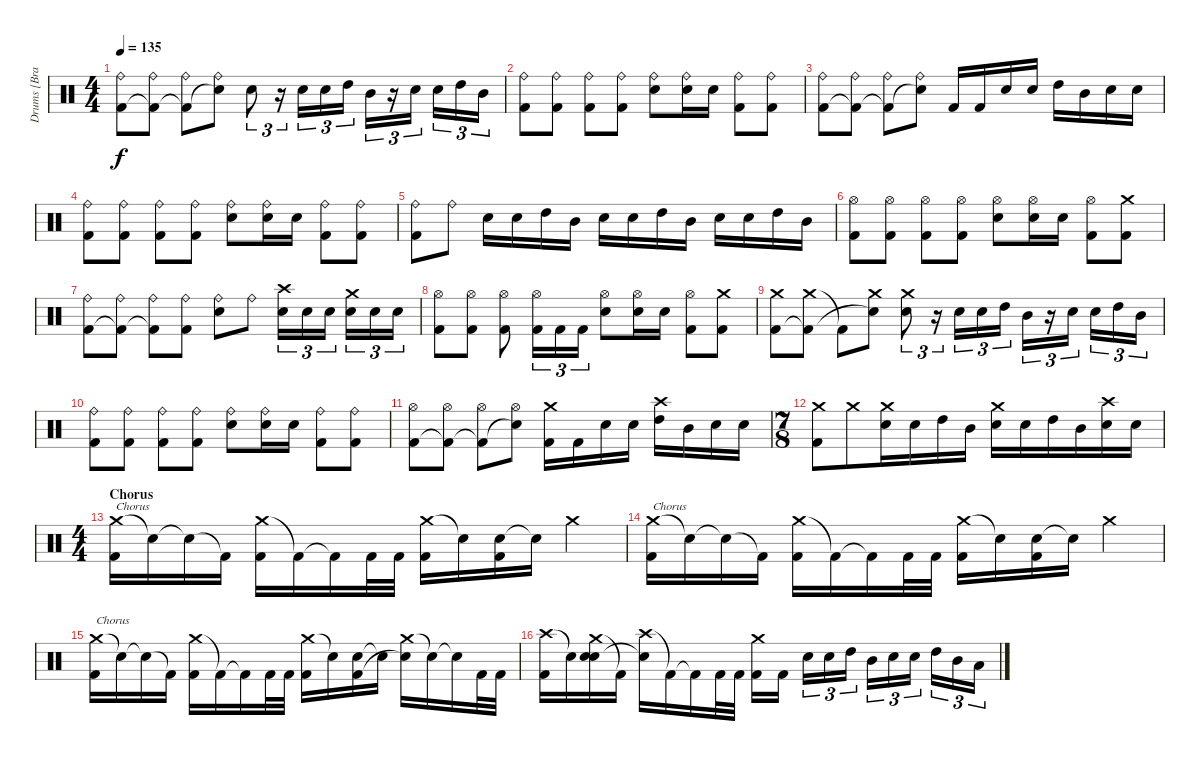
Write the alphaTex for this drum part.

\track ("Drums [Bran Dailor]" "Drums [Bra") {instrument percussion}
\staff {score}
\articulation defaults
\ts (4 4)
\tempo 135
\clef neutral
\ks c
("Ride (bell)" "Kick (hit) 2").8{dy f} ("Ride (bell)" "Kick (hit) 2"{t}).8 ("Ride (bell)" "Kick (hit) 2"{t}).8 ("Ride (bell)" "Snare (hit)"{t}).8 "Electric Snare (hit)".8{tu (3 2)} r.16{tu (3 2)} "Electric Snare (hit)".16{tu (3 2)} "Electric Snare (hit)".16{tu (3 2)} "High Tom (hit)".16{tu (3 2)} "Mid Tom (hit)".16{tu (3 2)} r.16{tu (3 2)} "Electric Snare (hit)".16{tu (3 2)} "Electric Snare (hit)".16{tu (3 2)} "High Tom (hit)".16{tu (3 2)} "Mid Tom (hit)".16{tu (3 2)} |
("Ride (bell)" "Kick (hit) 2").8 ("Ride (bell)" "Kick (hit) 2").8 ("Ride (bell)" "Kick (hit) 2").8 ("Ride (bell)" "Kick (hit) 2").8 ("Ride (bell)" "Electric Snare (hit)").8 ("Ride (bell)" "Electric Snare (hit)").16 "Electric Snare (hit)".16 ("Ride (bell)" "Kick (hit) 2").8 ("Ride (bell)" "Kick (hit) 2").8 |
("Ride (bell)" "Kick (hit) 2").8 ("Ride (bell)" "Kick (hit) 2"{t}).8 ("Ride (bell)" "Kick (hit) 2"{t}).8 ("Ride (bell)" "Snare (hit)"{t}).8 "Kick (hit) 2".16 "Kick (hit) 2".16 "Electric Snare (hit)".16 "Electric Snare (hit)".16 "High Tom (hit)".16 "Mid Tom (hit)".16 "Electric Snare (hit)".16 "Electric Snare (hit)".16 |
("Ride (bell)" "Kick (hit) 2").8 ("Ride (bell)" "Kick (hit) 2").8 ("Ride (bell)" "Kick (hit) 2").8 ("Ride (bell)" "Kick (hit) 2").8 ("Ride (bell)" "Electric Snare (hit)").8 ("Ride (bell)" "Electric Snare (hit)").16 "Electric Snare (hit)".16 ("Ride (bell)" "Kick (hit) 2").8 ("Ride (bell)" "Kick (hit) 2").8 |
("Ride (bell)" "Kick (hit) 2").8 "Ride (bell)".8 "Electric Snare (hit)".16 "Electric Snare (hit)".16 "High Tom (hit)".16 "Mid Tom (hit)".16 "Electric Snare (hit)".16 "Electric Snare (hit)".16 "High Tom (hit)".16 "Mid Tom (hit)".16 "Electric Snare (hit)".16 "Electric Snare (hit)".16 "High Tom (hit)".16 "Mid Tom (hit)".16 |
("Hi-Hat (open)" "Kick (hit) 2").8 ("Hi-Hat (open)" "Kick (hit) 2").8 ("Hi-Hat (open)" "Kick (hit) 2").8 ("Hi-Hat (open)" "Kick (hit) 2").8 ("Hi-Hat (open)" "Electric Snare (hit)").8 ("Hi-Hat (open)" "Electric Snare (hit)").16 "Electric Snare (hit)".16 ("Hi-Hat (open)" "Kick (hit) 2").8 ("Crash medium (hit)" "Kick (hit) 2").8 |
("Ride (bell)" "Kick (hit) 2").8 ("Ride (bell)" "Kick (hit) 2"{t}).8 ("Ride (bell)" "Kick (hit) 2"{t}).8 ("Ride (bell)" "Kick (hit) 2").8 ("Ride (bell)" "Electric Snare (hit)").8 "Ride (bell)".8 ("Crash high (hit)" "Electric Snare (hit)").16{tu (3 2)} "Electric Snare (hit)".16{tu (3 2)} "Electric Snare (hit)".16{tu (3 2)} ("Crash medium (hit)" "Electric Snare (hit)").16{tu (3 2)} "Electric Snare (hit)".16{tu (3 2)} "Electric Snare (hit)".16{tu (3 2)} |
("Hi-Hat (open)" "Kick (hit) 2").8 ("Hi-Hat (open)" "Kick (hit) 2").8 ("Hi-Hat (open)" "Kick (hit) 2").8 ("Hi-Hat (open)" "Kick (hit) 2").16{tu (3 2)} "Kick (hit) 2".16{tu (3 2)} "Kick (hit) 2".16{tu (3 2)} ("Hi-Hat (open)" "Electric Snare (hit)").8 ("Hi-Hat (open)" "Electric Snare (hit)").16 "Electric Snare (hit)".16 ("Hi-Hat (open)" "Kick (hit) 2").8 ("Crash medium (hit)" "Kick (hit) 2").8 |
("Crash medium (hit)" "Kick (hit) 2").8 ("Crash medium (hit)" "Kick (hit) 2"{t}).8 "Kick (hit) 2"{t}.8 ("Crash medium (hit)" "Snare (hit)"{t}).8 ("Crash medium (hit)" "Electric Snare (hit)").8{tu (3 2)} r.16{tu (3 2)} "Electric Snare (hit)".16{tu (3 2)} "Electric Snare (hit)".16{tu (3 2)} "High Tom (hit)".16{tu (3 2)} "Mid Tom (hit)".16{tu (3 2)} r.16{tu (3 2)} "Electric Snare (hit)".16{tu (3 2)} "Electric Snare (hit)".16{tu (3 2)} "High Tom (hit)".16{tu (3 2)} "Mid Tom (hit)".16{tu (3 2)} |
("Ride (bell)" "Kick (hit) 2").8 ("Ride (bell)" "Kick (hit) 2").8 ("Ride (bell)" "Kick (hit) 2").8 ("Ride (bell)" "Kick (hit) 2").8 ("Ride (bell)" "Electric Snare (hit)").8 ("Ride (bell)" "Electric Snare (hit)").16 "Electric Snare (hit)".16 ("Ride (bell)" "Kick (hit) 2").8 ("Ride (bell)" "Kick (hit) 2").8 |
("Hi-Hat (open)" "Kick (hit) 2").8 ("Hi-Hat (open)" "Kick (hit) 2"{t}).8 ("Hi-Hat (open)" "Kick (hit) 2"{t}).8 ("Hi-Hat (open)" "Snare (hit)"{t}).8 ("Crash medium (hit)" "Kick (hit) 2").16 "Kick (hit) 2".16 "Electric Snare (hit)".16 "Electric Snare (hit)".16 ("Crash high (hit)" "High Tom (hit)").16 "Mid Tom (hit)".16 "Electric Snare (hit)".16 "Electric Snare (hit)".16 |
\ts (7 8)
("Crash medium (hit)" "Kick (hit) 2").8 "Crash medium (hit)".8 ("Crash medium (hit)" "Electric Snare (hit)").16 "Electric Snare (hit)".16 "High Tom (hit)".16 "Mid Tom (hit)".16 ("Crash medium (hit)" "Electric Snare (hit)").16 "Electric Snare (hit)".16 "High Tom (hit)".16 "Mid Tom (hit)".16 ("Crash high (hit)" "Electric Snare (hit)").16 "Electric Snare (hit)".16 |
\ts (4 4)
\section ("" "Chorus")
("Crash medium (hit)" "Kick (hit) 2").16{txt "Chorus"} "Snare (hit)"{t}.16 "Snare (hit)"{t}.16 "Kick (hit) 2"{t}.16 ("Crash medium (hit)" "Kick (hit) 2").16 "Kick (hit) 2"{t}.16 "Kick (hit) 2"{t}.16 "Kick (hit) 2".32 "Kick (hit) 2".32 ("Crash medium (hit)" "Kick (hit) 2").16 "Snare (hit)"{t}.16 ("Electric Snare (hit)" "Kick (hit) 2").16 "Snare (hit)"{t}.16 "Crash medium (hit)".4 |
("Crash medium (hit)" "Kick (hit) 2").16{txt "Chorus"} "Snare (hit)"{t}.16 "Snare (hit)"{t}.16 "Kick (hit) 2"{t}.16 ("Crash medium (hit)" "Kick (hit) 2").16 "Kick (hit) 2"{t}.16 "Kick (hit) 2"{t}.16 "Kick (hit) 2".32 "Kick (hit) 2".32 ("Crash medium (hit)" "Kick (hit) 2").16 "Snare (hit)"{t}.16 ("Electric Snare (hit)" "Kick (hit) 2").16 "Snare (hit)"{t}.16 "Crash medium (hit)".4 |
("Crash medium (hit)" "Kick (hit) 2").16{txt "Chorus"} "Snare (hit)"{t}.16 "Snare (hit)"{t}.16 "Kick (hit) 2"{t}.16 ("Crash medium (hit)" "Kick (hit) 2").16 "Kick (hit) 2"{t}.16 "Kick (hit) 2"{t}.16 "Kick (hit) 2".32 "Kick (hit) 2".32 ("Crash medium (hit)" "Kick (hit) 2").16 "Snare (hit)"{t}.16 ("Electric Snare (hit)" "Kick (hit) 2").16 "Snare (hit)"{t}.16 ("Crash medium (hit)" "Snare (hit)"{t}).16 "Snare (hit)"{t}.16 "Snare (hit)"{t}.16 "Kick (hit) 2".32 "Kick (hit) 2".32 |
("Crash high (hit)" "Kick (hit) 2").16 "Snare (hit)"{t}.16 ("Crash medium (hit)" "Electric Snare (hit)" "Snare (hit)").16 "Kick (hit) 2"{t}.16 ("Crash high (hit)" "Snare (hit)"{t}).16 "Kick (hit) 2"{t}.16 "Kick (hit) 2"{t}.16 "Kick (hit) 2".32 "Kick (hit) 2".32 ("Crash medium (hit)" "Kick (hit) 2").16 "Kick (hit) 2".16 "Electric Snare (hit)".16{tu (3 2)} "Electric Snare (hit)".16{tu (3 2)} "High Tom (hit)".16{tu (3 2)} "Mid Tom (hit)".16{tu (3 2)} "Electric Snare (hit)".16{tu (3 2)} "Electric Snare (hit)".16{tu (3 2)} "High Tom (hit)".16{tu (3 2)} "Mid Tom (hit)".16{tu (3 2)} "Low Tom (hit)".16{tu (3 2)}
